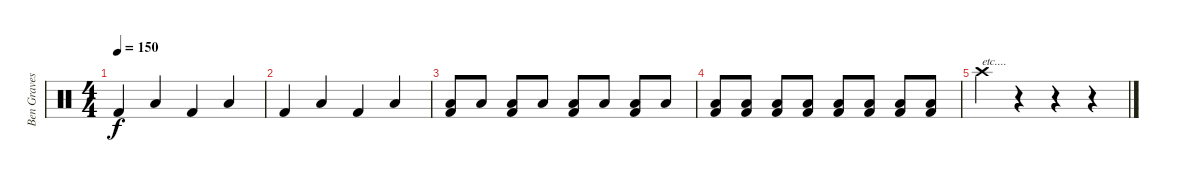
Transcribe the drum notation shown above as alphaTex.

\track ("Ben Graves" "Ben Graves") {instrument percussion}
\staff {score}
\articulation defaults
\ts (4 4)
\tempo 150
\clef neutral
\ks c "Kick (hit) 2".4{dy f} "Low Floor Tom (hit)".4 "Kick (hit) 2".4 "Low Floor Tom (hit)".4
|
"Kick (hit) 2".4 "Low Floor Tom (hit)".4 "Kick (hit) 2".4 "Low Floor Tom (hit)".4 |
("Low Floor Tom (hit)" "Kick (hit) 2").8 "Low Floor Tom (hit)".8 ("Low Floor Tom (hit)" "Kick (hit) 2").8 "Low Floor Tom (hit)".8 ("Low Floor Tom (hit)" "Kick (hit) 2").8 "Low Floor Tom (hit)".8 ("Low Floor Tom (hit)" "Kick (hit) 2").8 "Low Floor Tom (hit)".8 |
("Low Floor Tom (hit)" "Kick (hit) 2").8 ("Low Floor Tom (hit)" "Kick (hit) 2").8 ("Low Floor Tom (hit)" "Kick (hit) 2").8 ("Low Floor Tom (hit)" "Kick (hit) 2").8 ("Low Floor Tom (hit)" "Kick (hit) 2").8 ("Low Floor Tom (hit)" "Kick (hit) 2").8 ("Low Floor Tom (hit)" "Kick (hit) 2").8 ("Low Floor Tom (hit)" "Kick (hit) 2").8 |
"Crash high (hit)".4{txt "etc.... "} r.4 r.4 r.4
